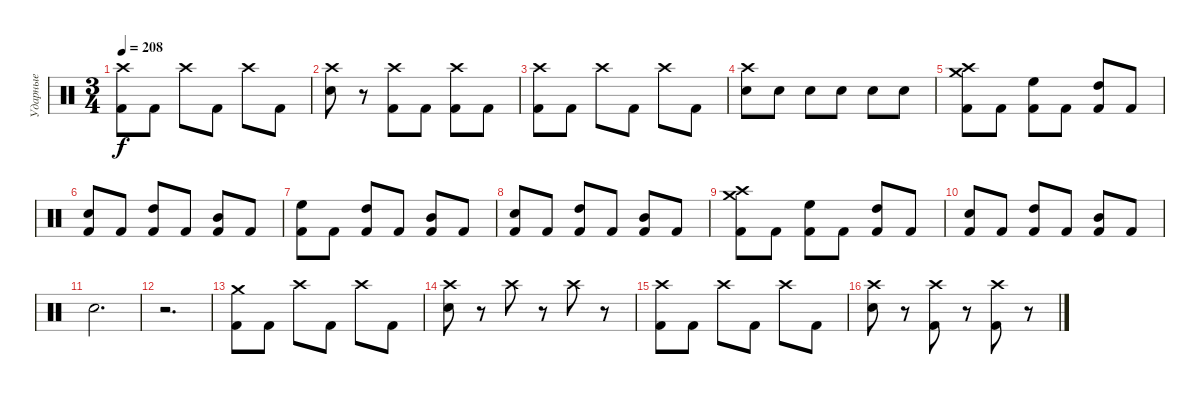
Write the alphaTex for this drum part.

\track ("Ударные" "Ударные") {instrument percussion}
\staff {score}
\articulation defaults
\ts (3 4)
\tempo 208
\clef neutral
\ks c
("Crash high (hit)" "Kick (hit) 2").8{dy f} "Kick (hit) 2".8 "Crash high (hit)".8 "Kick (hit) 2".8 "Crash high (hit)".8 "Kick (hit) 2".8 |
("Crash high (hit)" "Electric Snare (hit)").8 r.8 ("Crash high (hit)" "Kick (hit) 2").8 "Kick (hit) 2".8 ("Crash high (hit)" "Kick (hit) 2").8 "Kick (hit) 2".8 |
("Crash high (hit)" "Kick (hit) 2").8 "Kick (hit) 2".8 "Crash high (hit)".8 "Kick (hit) 2".8 "Crash high (hit)".8 "Kick (hit) 2".8 |
("Crash high (hit)" "Electric Snare (hit)").8 "Electric Snare (hit)".8 "Electric Snare (hit)".8 "Electric Snare (hit)".8 "Electric Snare (hit)".8 "Electric Snare (hit)".8 |
("Crash medium (hit)" "Crash high (hit)" "Kick (hit) 2").8 "Kick (hit) 2".8 ("High Floor Tom (hit)" "Kick (hit) 2").8 "Kick (hit) 2".8 ("High Tom (hit)" "Kick (hit) 2").8 "Kick (hit) 2".8 |
("Electric Snare (hit)" "Kick (hit) 2").8 "Kick (hit) 2".8 ("High Tom (hit)" "Kick (hit) 2").8 "Kick (hit) 2".8 ("Mid Tom (hit)" "Kick (hit) 2").8 "Kick (hit) 2".8 |
("High Floor Tom (hit)" "Kick (hit) 2").8 "Kick (hit) 2".8 ("High Tom (hit)" "Kick (hit) 2").8 "Kick (hit) 2".8 ("Mid Tom (hit)" "Kick (hit) 2").8 "Kick (hit) 2".8 |
("Electric Snare (hit)" "Kick (hit) 2").8 "Kick (hit) 2".8 ("High Tom (hit)" "Kick (hit) 2").8 "Kick (hit) 2".8 ("Mid Tom (hit)" "Kick (hit) 2").8 "Kick (hit) 2".8 |
("Crash medium (hit)" "Crash high (hit)" "Kick (hit) 2").8 "Kick (hit) 2".8 ("High Floor Tom (hit)" "Kick (hit) 2").8 "Kick (hit) 2".8 ("High Tom (hit)" "Kick (hit) 2").8 "Kick (hit) 2".8 |
("Electric Snare (hit)" "Kick (hit) 2").8 "Kick (hit) 2".8 ("High Tom (hit)" "Kick (hit) 2").8 "Kick (hit) 2".8 ("Mid Tom (hit)" "Kick (hit) 2").8 "Kick (hit) 2".8 |
"Electric Snare (hit)".2{d} |
r.2{d} |
("Crash medium (hit)" "Kick (hit) 2").8 "Kick (hit) 2".8 "Crash high (hit)".8 "Kick (hit) 2".8 "Crash high (hit)".8 "Kick (hit) 2".8 |
("Crash high (hit)" "Electric Snare (hit)").8 r.8 "Crash high (hit)".8 r.8 "Crash high (hit)".8 r.8 |
("Crash high (hit)" "Kick (hit) 2").8 "Kick (hit) 2".8 "Crash high (hit)".8 "Kick (hit) 2".8 "Crash high (hit)".8 "Kick (hit) 2".8 |
("Crash high (hit)" "Electric Snare (hit)").8 r.8 ("Crash high (hit)" "Kick (hit) 2").8 r.8 ("Crash high (hit)" "Kick (hit) 2").8 r.8
